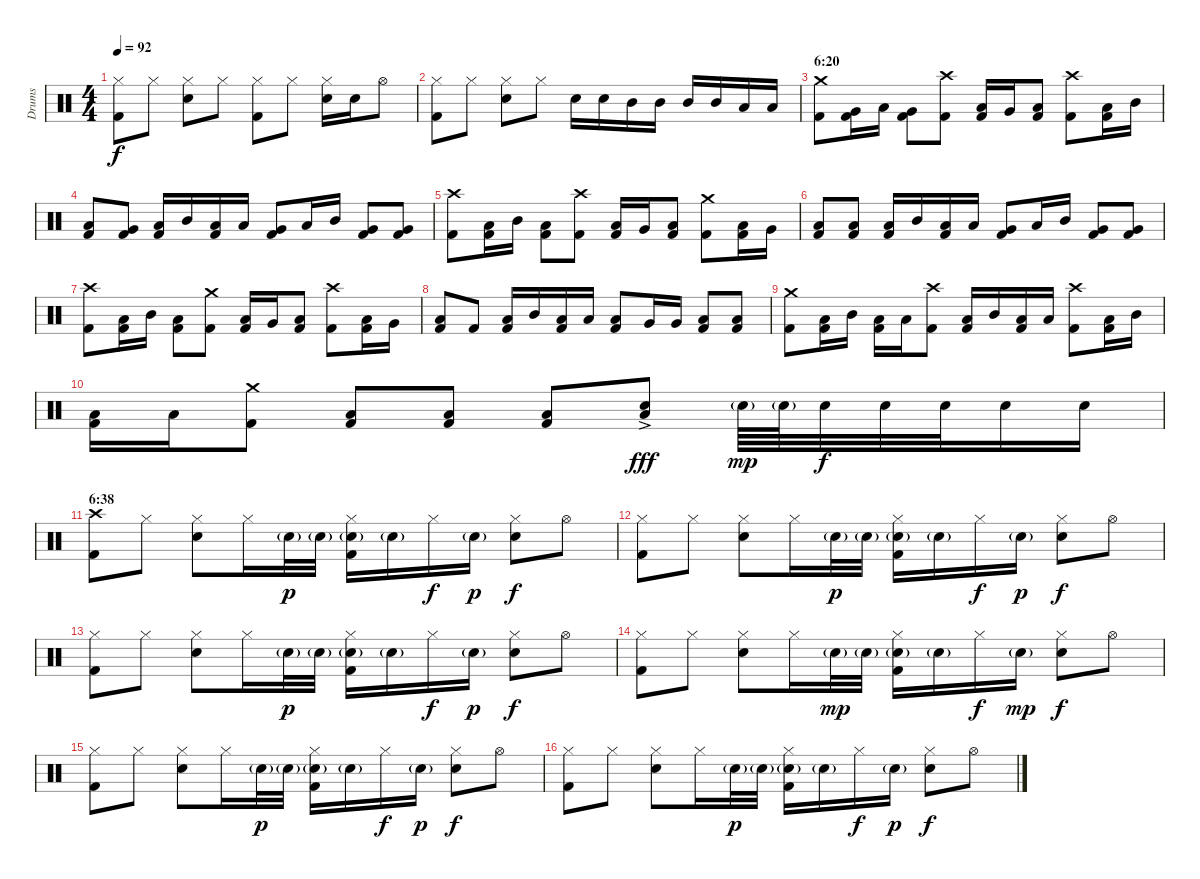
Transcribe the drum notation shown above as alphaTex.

\track ("Drums" "Drums") {instrument percussion}
\staff {score}
\articulation defaults
\ts (4 4)
\tempo 92
\clef neutral
\ks c
("Hi-Hat (closed)" "Kick (hit) 2").8{dy f} "Hi-Hat (closed)".8 ("Hi-Hat (closed)" "Snare (hit) 2").8 "Hi-Hat (closed)".8 ("Hi-Hat (closed)" "Kick (hit) 2").8 "Hi-Hat (closed)".8 ("Hi-Hat (closed)" "Snare (hit) 2").16 "Snare (hit) 2".16 "Hi-Hat (open)".8 |
("Hi-Hat (closed)" "Kick (hit) 2").8 "Hi-Hat (closed)".8 ("Hi-Hat (closed)" "Snare (hit) 2").8 "Hi-Hat (closed)".8 "Snare (hit) 2".16 "Snare (hit) 2".16 "Mid Tom (hit)".16 "Mid Tom (hit)".16 "Mid Tom (hit)".16 "Mid Tom (hit)".16 "Low Tom (hit)".16 "Low Tom (hit)".16 |
\section ("" "6:20")
("Crash medium (hit)" "Kick (hit) 2").8 ("Very Low Tom (hit)" "Kick (hit) 2").16 "Low Tom (hit)".16 ("Very Low Tom (hit)" "Kick (hit) 2").8 ("Crash high (hit)" "Kick (hit) 2").8 ("Low Floor Tom (hit)" "Kick (hit) 2").16 "Very Low Tom (hit)".16 ("Low Floor Tom (hit)" "Kick (hit) 2").8 ("Crash high (hit)" "Kick (hit) 2").8 ("Low Tom (hit)" "Kick (hit) 2").16 "Mid Tom (hit)".16 |
("Low Tom (hit)" "Kick (hit) 2").8 ("Very Low Tom (hit)" "Kick (hit) 2").8 ("Low Tom (hit)" "Kick (hit) 2").16 "Mid Tom (hit)".16 ("Low Tom (hit)" "Kick (hit) 2").16 "Low Tom (hit)".16 ("Very Low Tom (hit)" "Kick (hit) 2").8 "Low Tom (hit)".16 "Mid Tom (hit)".16 ("Very Low Tom (hit)" "Kick (hit) 2").8 ("Very Low Tom (hit)" "Kick (hit) 2").8 |
("Crash high (hit)" "Kick (hit) 2").8 ("Low Tom (hit)" "Kick (hit) 2").16 "Mid Tom (hit)".16 ("Low Tom (hit)" "Kick (hit) 2").8 ("Crash high (hit)" "Kick (hit) 2").8 ("Low Floor Tom (hit)" "Kick (hit) 2").16 "Very Low Tom (hit)".16 ("Low Floor Tom (hit)" "Kick (hit) 2").8 ("Crash medium (hit)" "Kick (hit) 2").8 ("Low Floor Tom (hit)" "Kick (hit) 2").16 "Very Low Tom (hit)".16 |
("Low Floor Tom (hit)" "Kick (hit) 2").8 ("Low Floor Tom (hit)" "Kick (hit) 2").8 ("Low Tom (hit)" "Kick (hit) 2").16 "Mid Tom (hit)".16 ("Low Tom (hit)" "Kick (hit) 2").16 "Low Tom (hit)".16 ("Very Low Tom (hit)" "Kick (hit) 2").8 "Low Tom (hit)".16 "Mid Tom (hit)".16 ("Very Low Tom (hit)" "Kick (hit) 2").8 ("Very Low Tom (hit)" "Kick (hit) 2").8 |
("Crash high (hit)" "Kick (hit) 2").8 ("Low Tom (hit)" "Kick (hit) 2").16 "Mid Tom (hit)".16 ("Low Tom (hit)" "Kick (hit) 2").8 ("Crash medium (hit)" "Kick (hit) 2").8 ("Low Floor Tom (hit)" "Kick (hit) 2").16 "Very Low Tom (hit)".16 ("Low Floor Tom (hit)" "Kick (hit) 2").8 ("Crash high (hit)" "Kick (hit) 2").8 ("Low Floor Tom (hit)" "Kick (hit) 2").16 "Very Low Tom (hit)".16 |
("Low Floor Tom (hit)" "Kick (hit) 2").8 "Kick (hit) 2".8 ("Low Tom (hit)" "Kick (hit) 2").16 "Mid Tom (hit)".16 ("Low Tom (hit)" "Kick (hit) 2").16 "Low Tom (hit)".16 ("Low Tom (hit)" "Kick (hit) 2").8 "Very Low Tom (hit)".16 "Very Low Tom (hit)".16 ("Low Floor Tom (hit)" "Kick (hit) 2").8 ("Low Floor Tom (hit)" "Kick (hit) 2").8 |
("Crash medium (hit)" "Kick (hit) 2").8 ("Low Tom (hit)" "Kick (hit) 2").16 "Mid Tom (hit)".16 ("Low Tom (hit)" "Kick (hit) 2").16 "Low Tom (hit)".16 ("Crash high (hit)" "Kick (hit) 2").8 ("Low Tom (hit)" "Kick (hit) 2").16 "Mid Tom (hit)".16 ("Low Tom (hit)" "Kick (hit) 2").16 "Low Tom (hit)".16 ("Crash high (hit)" "Kick (hit) 2").8 ("Low Tom (hit)" "Kick (hit) 2").16 "Mid Tom (hit)".16 |
("Low Tom (hit)" "Kick (hit) 2").16 "Low Tom (hit)".16 ("Crash medium (hit)" "Kick (hit) 2").8 ("Low Floor Tom (hit)" "Kick (hit) 2").8 ("Low Floor Tom (hit)" "Kick (hit) 2").8 ("Low Floor Tom (hit)" "Kick (hit) 2").8 ("Snare (hit) 2"{ac} "Low Floor Tom (hit)").8{dy fff} "Snare (hit) 2"{g}.64{dy mp} "Snare (hit) 2"{g}.64 "Snare (hit) 2".32{dy f} "Snare (hit) 2".32 "Snare (hit) 2".32 "Snare (hit) 2".16 "Snare (hit) 2".16 |
\section ("" "6:38")
("Crash high (hit)" "Kick (hit) 2").8 "Hi-Hat (closed)".8 ("Hi-Hat (closed)" "Snare (hit) 2").8 "Hi-Hat (closed)".16 "Snare (hit) 2"{g}.32{dy p} "Snare (hit) 2"{g}.32 ("Hi-Hat (closed)" "Snare (hit) 2"{g} "Kick (hit) 2").16 "Snare (hit) 2"{g}.16 "Hi-Hat (closed)".16{dy f} "Snare (hit) 2"{g}.16{dy p} ("Hi-Hat (closed)" "Snare (hit) 2").8{dy f} "Hi-Hat (open)".8 |
("Hi-Hat (closed)" "Kick (hit) 2").8 "Hi-Hat (closed)".8 ("Hi-Hat (closed)" "Snare (hit) 2").8 "Hi-Hat (closed)".16 "Snare (hit) 2"{g}.32{dy p} "Snare (hit) 2"{g}.32 ("Hi-Hat (closed)" "Snare (hit) 2"{g} "Kick (hit) 2").16 "Snare (hit) 2"{g}.16 "Hi-Hat (closed)".16{dy f} "Snare (hit) 2"{g}.16{dy p} ("Hi-Hat (closed)" "Snare (hit) 2").8{dy f} "Hi-Hat (open)".8 |
("Hi-Hat (closed)" "Kick (hit) 2").8 "Hi-Hat (closed)".8 ("Hi-Hat (closed)" "Snare (hit) 2").8 "Hi-Hat (closed)".16 "Snare (hit) 2"{g}.32{dy p} "Snare (hit) 2"{g}.32 ("Hi-Hat (closed)" "Snare (hit) 2"{g} "Kick (hit) 2").16 "Snare (hit) 2"{g}.16 "Hi-Hat (closed)".16{dy f} "Snare (hit) 2"{g}.16{dy p} ("Hi-Hat (closed)" "Snare (hit) 2").8{dy f} "Hi-Hat (open)".8 |
("Hi-Hat (closed)" "Kick (hit) 2").8 "Hi-Hat (closed)".8 ("Hi-Hat (closed)" "Snare (hit) 2").8 "Hi-Hat (closed)".16 "Snare (hit) 2"{g}.32{dy mp} "Snare (hit) 2"{g}.32 ("Hi-Hat (closed)" "Snare (hit) 2"{g} "Kick (hit) 2").16 "Snare (hit) 2"{g}.16 "Hi-Hat (closed)".16{dy f} "Snare (hit) 2"{g}.16{dy mp} ("Hi-Hat (closed)" "Snare (hit) 2").8{dy f} "Hi-Hat (open)".8 |
("Hi-Hat (closed)" "Kick (hit) 2").8 "Hi-Hat (closed)".8 ("Hi-Hat (closed)" "Snare (hit) 2").8 "Hi-Hat (closed)".16 "Snare (hit) 2"{g}.32{dy p} "Snare (hit) 2"{g}.32 ("Hi-Hat (closed)" "Snare (hit) 2"{g} "Kick (hit) 2").16 "Snare (hit) 2"{g}.16 "Hi-Hat (closed)".16{dy f} "Snare (hit) 2"{g}.16{dy p} ("Hi-Hat (closed)" "Snare (hit) 2").8{dy f} "Hi-Hat (open)".8 |
("Hi-Hat (closed)" "Kick (hit) 2").8 "Hi-Hat (closed)".8 ("Hi-Hat (closed)" "Snare (hit) 2").8 "Hi-Hat (closed)".16 "Snare (hit) 2"{g}.32{dy p} "Snare (hit) 2"{g}.32 ("Hi-Hat (closed)" "Snare (hit) 2"{g} "Kick (hit) 2").16 "Snare (hit) 2"{g}.16 "Hi-Hat (closed)".16{dy f} "Snare (hit) 2"{g}.16{dy p} ("Hi-Hat (closed)" "Snare (hit) 2").8{dy f} "Hi-Hat (open)".8
